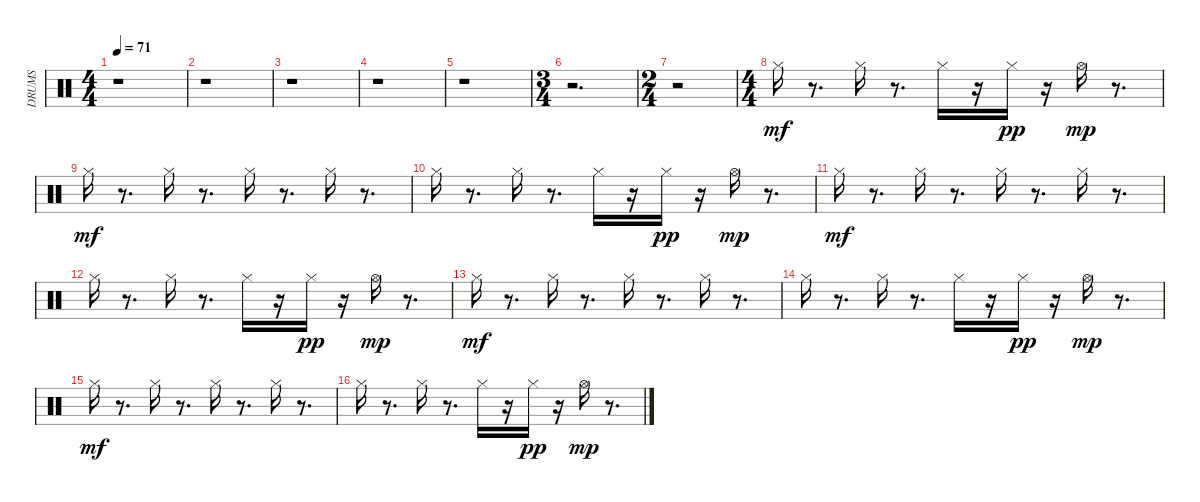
\track ("DRUMS" "DRUMS") {instrument percussion}
\staff {score}
\articulation defaults
\ts (4 4)
\tempo 71
\clef neutral
\ks c
r.1{dy mf} |
r.1 |
r.1 |
r.1 |
r.1 |
\ts (3 4)
r.2{d} |
\ts (2 4)
r.2 |
\ts (4 4)
"Hi-Hat (closed)".16 r.8{d} "Hi-Hat (closed)".16 r.8{d} "Hi-Hat (closed)".16 r.16 "Hi-Hat (closed)".16{dy pp} r.16 "Hi-Hat (open)".16{dy mp} r.8{d} |
"Hi-Hat (closed)".16{dy mf} r.8{d} "Hi-Hat (closed)".16 r.8{d} "Hi-Hat (closed)".16 r.8{d} "Hi-Hat (closed)".16 r.8{d} |
"Hi-Hat (closed)".16 r.8{d} "Hi-Hat (closed)".16 r.8{d} "Hi-Hat (closed)".16 r.16 "Hi-Hat (closed)".16{dy pp} r.16 "Hi-Hat (open)".16{dy mp} r.8{d} |
"Hi-Hat (closed)".16{dy mf} r.8{d} "Hi-Hat (closed)".16 r.8{d} "Hi-Hat (closed)".16 r.8{d} "Hi-Hat (closed)".16 r.8{d} |
"Hi-Hat (closed)".16 r.8{d} "Hi-Hat (closed)".16 r.8{d} "Hi-Hat (closed)".16 r.16 "Hi-Hat (closed)".16{dy pp} r.16 "Hi-Hat (open)".16{dy mp} r.8{d} |
"Hi-Hat (closed)".16{dy mf} r.8{d} "Hi-Hat (closed)".16 r.8{d} "Hi-Hat (closed)".16 r.8{d} "Hi-Hat (closed)".16 r.8{d} |
"Hi-Hat (closed)".16 r.8{d} "Hi-Hat (closed)".16 r.8{d} "Hi-Hat (closed)".16 r.16 "Hi-Hat (closed)".16{dy pp} r.16 "Hi-Hat (open)".16{dy mp} r.8{d} |
"Hi-Hat (closed)".16{dy mf} r.8{d} "Hi-Hat (closed)".16 r.8{d} "Hi-Hat (closed)".16 r.8{d} "Hi-Hat (closed)".16 r.8{d} |
"Hi-Hat (closed)".16 r.8{d} "Hi-Hat (closed)".16 r.8{d} "Hi-Hat (closed)".16 r.16 "Hi-Hat (closed)".16{dy pp} r.16 "Hi-Hat (open)".16{dy mp} r.8{d}
